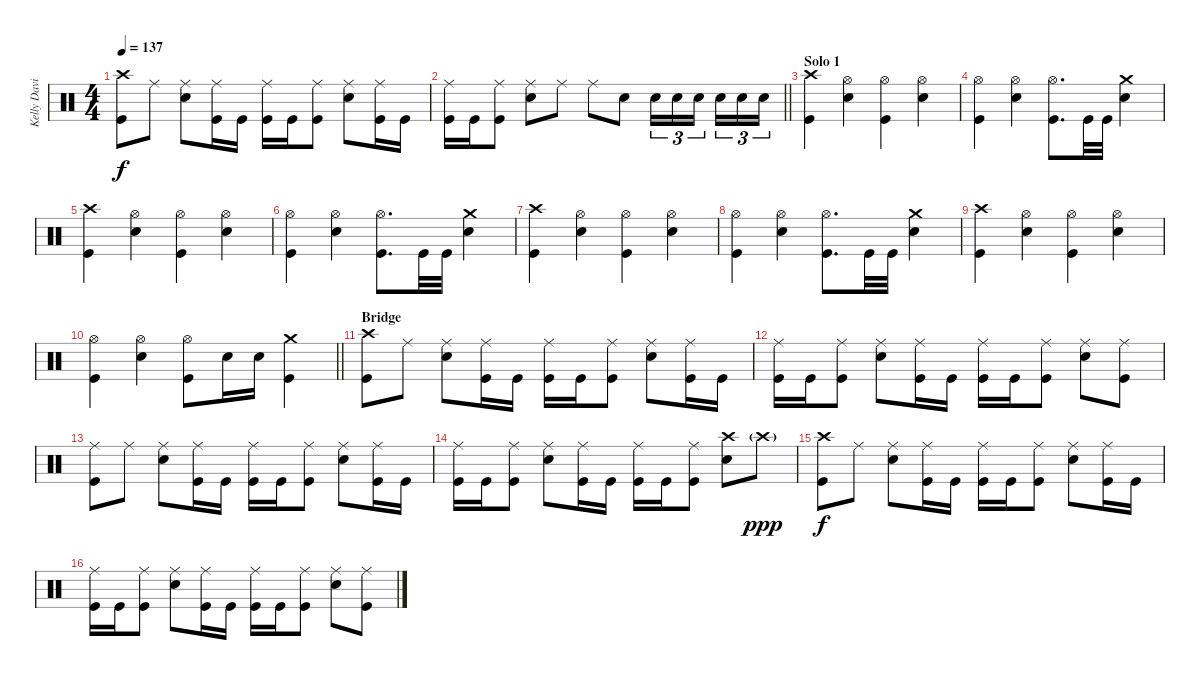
\track ("Kelly David Smith" "Kelly Davi") {instrument percussion}
\staff {score}
\articulation defaults
\ts (4 4)
\tempo 137
\clef neutral
\ks c
("Crash high (hit)" "Kick (hit)").8{dy f} "Ride (middle)".8 ("Ride (middle)" "Electric Snare (hit)").8 ("Ride (middle)" "Kick (hit)").16 "Kick (hit)".16 ("Ride (middle)" "Kick (hit)").16 "Kick (hit)".16 ("Ride (middle)" "Kick (hit)").8 ("Ride (middle)" "Electric Snare (hit)").8 ("Ride (middle)" "Kick (hit)").16 "Kick (hit)".16 |
\barLineRight lightlight
("Ride (middle)" "Kick (hit)").16 "Kick (hit)".16 ("Ride (middle)" "Kick (hit)").8 ("Ride (middle)" "Electric Snare (hit)").8 "Ride (middle)".8 "Ride (middle)".8 "Electric Snare (hit)".8 "Electric Snare (hit)".16{tu (3 2)} "Electric Snare (hit)".16{tu (3 2)} "Electric Snare (hit)".16{tu (3 2) beam splitsecondary} "Electric Snare (hit)".16{tu (3 2)} "Electric Snare (hit)".16{tu (3 2)} "Electric Snare (hit)".16{tu (3 2)} |
\section ("" "Solo 1")
("Crash high (hit)" "Kick (hit)").4 ("Hi-Hat (open)" "Electric Snare (hit)").4 ("Hi-Hat (open)" "Kick (hit)").4 ("Hi-Hat (open)" "Electric Snare (hit)").4 |
("Hi-Hat (open)" "Kick (hit)").4 ("Hi-Hat (open)" "Electric Snare (hit)").4 ("Hi-Hat (open)" "Kick (hit)").8{d} "Kick (hit)".32 "Kick (hit)".32 ("Crash medium (hit)" "Electric Snare (hit)").4 |
("Crash high (hit)" "Kick (hit)").4 ("Hi-Hat (open)" "Electric Snare (hit)").4 ("Hi-Hat (open)" "Kick (hit)").4 ("Hi-Hat (open)" "Electric Snare (hit)").4 |
("Hi-Hat (open)" "Kick (hit)").4 ("Hi-Hat (open)" "Electric Snare (hit)").4 ("Hi-Hat (open)" "Kick (hit)").8{d} "Kick (hit)".32 "Kick (hit)".32 ("Crash medium (hit)" "Electric Snare (hit)").4 |
("Crash high (hit)" "Kick (hit)").4 ("Hi-Hat (open)" "Electric Snare (hit)").4 ("Hi-Hat (open)" "Kick (hit)").4 ("Hi-Hat (open)" "Electric Snare (hit)").4 |
("Hi-Hat (open)" "Kick (hit)").4 ("Hi-Hat (open)" "Electric Snare (hit)").4 ("Hi-Hat (open)" "Kick (hit)").8{d} "Kick (hit)".32 "Kick (hit)".32 ("Crash medium (hit)" "Electric Snare (hit)").4 |
("Crash high (hit)" "Kick (hit)").4 ("Hi-Hat (open)" "Electric Snare (hit)").4 ("Hi-Hat (open)" "Kick (hit)").4 ("Hi-Hat (open)" "Electric Snare (hit)").4 |
\barLineRight lightlight
("Hi-Hat (open)" "Kick (hit)").4 ("Hi-Hat (open)" "Electric Snare (hit)").4 ("Hi-Hat (open)" "Kick (hit)").8 "Electric Snare (hit)".16 "Electric Snare (hit)".16 ("Crash medium (hit)" "Kick (hit)").4 |
\section ("" "Bridge")
("Crash high (hit)" "Kick (hit)").8 "Ride (middle)".8 ("Ride (middle)" "Electric Snare (hit)").8 ("Ride (middle)" "Kick (hit)").16 "Kick (hit)".16 ("Ride (middle)" "Kick (hit)").16 "Kick (hit)".16 ("Ride (middle)" "Kick (hit)").8 ("Ride (middle)" "Electric Snare (hit)").8 ("Ride (middle)" "Kick (hit)").16 "Kick (hit)".16 |
("Ride (middle)" "Kick (hit)").16 "Kick (hit)".16 ("Ride (middle)" "Kick (hit)").8 ("Ride (middle)" "Electric Snare (hit)").8 ("Ride (middle)" "Kick (hit)").16 "Kick (hit)".16 ("Ride (middle)" "Kick (hit)").16 "Kick (hit)".16 ("Ride (middle)" "Kick (hit)").8 ("Ride (middle)" "Electric Snare (hit)").8 ("Ride (middle)" "Kick (hit)").8 |
("Ride (middle)" "Kick (hit)").8 "Ride (middle)".8 ("Ride (middle)" "Electric Snare (hit)").8 ("Ride (middle)" "Kick (hit)").16 "Kick (hit)".16 ("Ride (middle)" "Kick (hit)").16 "Kick (hit)".16 ("Ride (middle)" "Kick (hit)").8 ("Ride (middle)" "Electric Snare (hit)").8 ("Ride (middle)" "Kick (hit)").16 "Kick (hit)".16 |
("Ride (middle)" "Kick (hit)").16 "Kick (hit)".16 ("Ride (middle)" "Kick (hit)").8 ("Ride (middle)" "Electric Snare (hit)").8 ("Ride (middle)" "Kick (hit)").16 "Kick (hit)".16 ("Ride (middle)" "Kick (hit)").16 "Kick (hit)".16 ("Ride (middle)" "Kick (hit)").8 ("Crash high (hit)" "Electric Snare (hit)").8 "Crash high (hit)"{g}.8{dy ppp} |
("Crash high (hit)" "Kick (hit)").8{dy f} "Ride (middle)".8 ("Ride (middle)" "Electric Snare (hit)").8 ("Ride (middle)" "Kick (hit)").16 "Kick (hit)".16 ("Ride (middle)" "Kick (hit)").16 "Kick (hit)".16 ("Ride (middle)" "Kick (hit)").8 ("Ride (middle)" "Electric Snare (hit)").8 ("Ride (middle)" "Kick (hit)").16 "Kick (hit)".16 |
("Ride (middle)" "Kick (hit)").16 "Kick (hit)".16 ("Ride (middle)" "Kick (hit)").8 ("Ride (middle)" "Electric Snare (hit)").8 ("Ride (middle)" "Kick (hit)").16 "Kick (hit)".16 ("Ride (middle)" "Kick (hit)").16 "Kick (hit)".16 ("Ride (middle)" "Kick (hit)").8 ("Ride (middle)" "Electric Snare (hit)").8 ("Ride (middle)" "Kick (hit)").8
